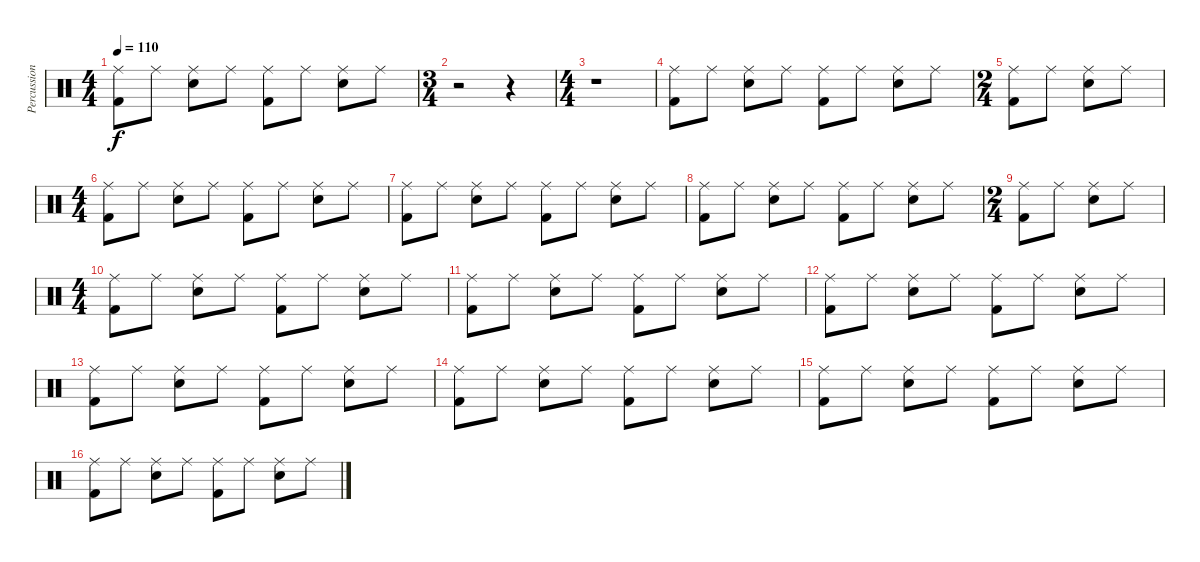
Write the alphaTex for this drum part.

\track ("Percussions" "Percussion") {instrument percussion}
\staff {score}
\articulation defaults
\ts (4 4)
\tempo 110
\clef neutral
\ks c
("Ride (middle)" "Kick (hit) 2").8{dy f} "Ride (middle)".8 ("Ride (middle)" "Electric Snare (hit)").8 "Ride (middle)".8 ("Ride (middle)" "Kick (hit) 2").8 "Ride (middle)".8 ("Ride (middle)" "Electric Snare (hit)").8 "Ride (middle)".8 |
\ts (3 4)
r.2 r.4 |
\ts (4 4)
r.1 |
("Ride (middle)" "Kick (hit) 2").8 "Ride (middle)".8 ("Ride (middle)" "Electric Snare (hit)").8 "Ride (middle)".8 ("Ride (middle)" "Kick (hit) 2").8 "Ride (middle)".8 ("Ride (middle)" "Electric Snare (hit)").8 "Ride (middle)".8 |
\ts (2 4)
("Ride (middle)" "Kick (hit) 2").8 "Ride (middle)".8 ("Ride (middle)" "Electric Snare (hit)").8 "Ride (middle)".8 |
\ts (4 4)
("Ride (middle)" "Kick (hit) 2").8 "Ride (middle)".8 ("Ride (middle)" "Electric Snare (hit)").8 "Ride (middle)".8 ("Ride (middle)" "Kick (hit) 2").8 "Ride (middle)".8 ("Ride (middle)" "Electric Snare (hit)").8 "Ride (middle)".8 |
("Ride (middle)" "Kick (hit) 2").8 "Ride (middle)".8 ("Ride (middle)" "Electric Snare (hit)").8 "Ride (middle)".8 ("Ride (middle)" "Kick (hit) 2").8 "Ride (middle)".8 ("Ride (middle)" "Electric Snare (hit)").8 "Ride (middle)".8 |
("Ride (middle)" "Kick (hit) 2").8 "Ride (middle)".8 ("Ride (middle)" "Electric Snare (hit)").8 "Ride (middle)".8 ("Ride (middle)" "Kick (hit) 2").8 "Ride (middle)".8 ("Ride (middle)" "Electric Snare (hit)").8 "Ride (middle)".8 |
\ts (2 4)
("Ride (middle)" "Kick (hit) 2").8 "Ride (middle)".8 ("Ride (middle)" "Electric Snare (hit)").8 "Ride (middle)".8 |
\ts (4 4)
("Ride (middle)" "Kick (hit) 2").8 "Ride (middle)".8 ("Ride (middle)" "Electric Snare (hit)").8 "Ride (middle)".8 ("Ride (middle)" "Kick (hit) 2").8 "Ride (middle)".8 ("Ride (middle)" "Electric Snare (hit)").8 "Ride (middle)".8 |
("Ride (middle)" "Kick (hit) 2").8 "Ride (middle)".8 ("Ride (middle)" "Electric Snare (hit)").8 "Ride (middle)".8 ("Ride (middle)" "Kick (hit) 2").8 "Ride (middle)".8 ("Ride (middle)" "Electric Snare (hit)").8 "Ride (middle)".8 |
("Ride (middle)" "Kick (hit) 2").8 "Ride (middle)".8 ("Ride (middle)" "Electric Snare (hit)").8 "Ride (middle)".8 ("Ride (middle)" "Kick (hit) 2").8 "Ride (middle)".8 ("Ride (middle)" "Electric Snare (hit)").8 "Ride (middle)".8 |
("Ride (middle)" "Kick (hit) 2").8 "Ride (middle)".8 ("Ride (middle)" "Electric Snare (hit)").8 "Ride (middle)".8 ("Ride (middle)" "Kick (hit) 2").8 "Ride (middle)".8 ("Ride (middle)" "Electric Snare (hit)").8 "Ride (middle)".8 |
("Ride (middle)" "Kick (hit) 2").8 "Ride (middle)".8 ("Ride (middle)" "Electric Snare (hit)").8 "Ride (middle)".8 ("Ride (middle)" "Kick (hit) 2").8 "Ride (middle)".8 ("Ride (middle)" "Electric Snare (hit)").8 "Ride (middle)".8 |
("Ride (middle)" "Kick (hit) 2").8 "Ride (middle)".8 ("Ride (middle)" "Electric Snare (hit)").8 "Ride (middle)".8 ("Ride (middle)" "Kick (hit) 2").8 "Ride (middle)".8 ("Ride (middle)" "Electric Snare (hit)").8 "Ride (middle)".8 |
("Ride (middle)" "Kick (hit) 2").8 "Ride (middle)".8 ("Ride (middle)" "Electric Snare (hit)").8 "Ride (middle)".8 ("Ride (middle)" "Kick (hit) 2").8 "Ride (middle)".8 ("Ride (middle)" "Electric Snare (hit)").8 "Ride (middle)".8
